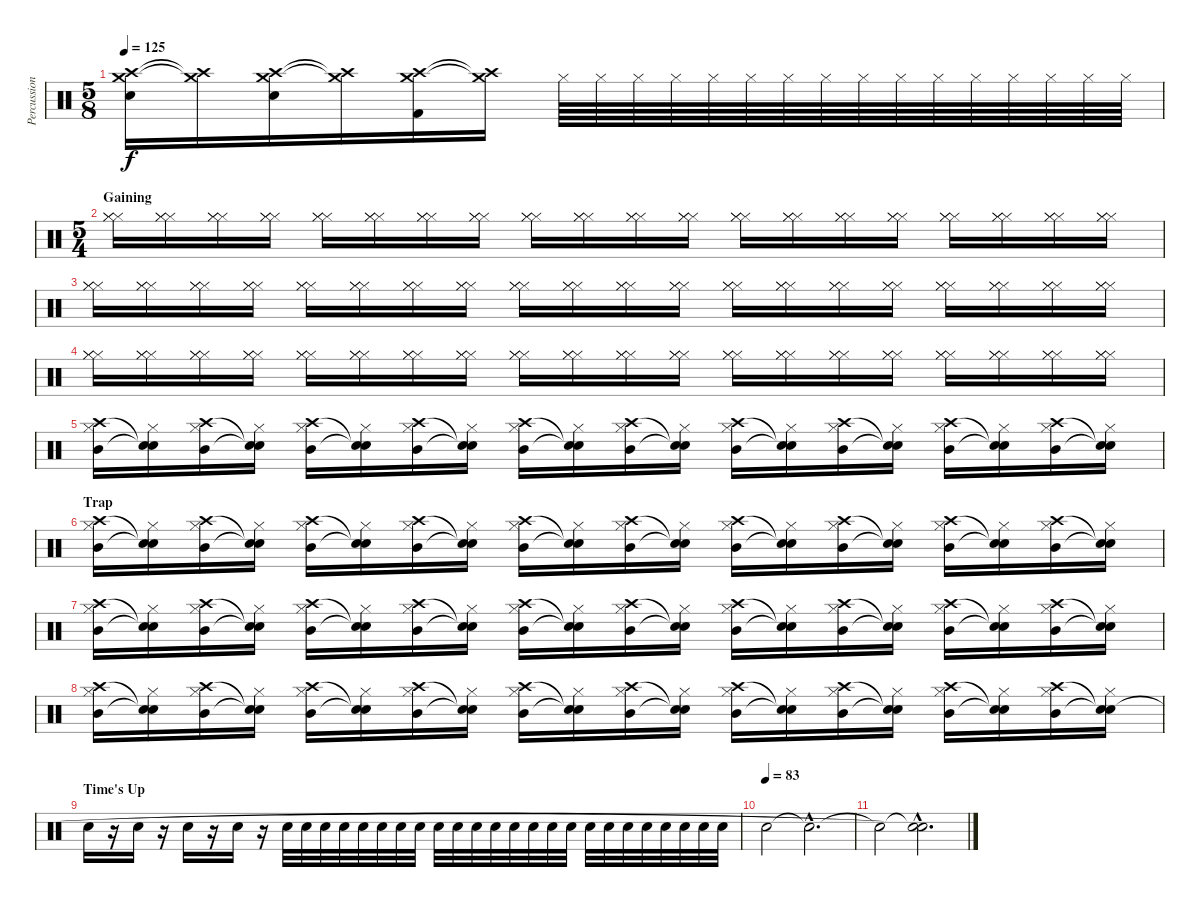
\track ("Percussion" "Percussion") {instrument percussion}
\staff {score}
\articulation defaults
\ts (5 8)
\tempo 125
\clef neutral
\ks c
("Crash high (hit)" "Crash medium (hit)" "Snare (hit) 2").16{dy f} ("Crash high (hit)"{t} "Crash medium (hit)"{t}).16 ("Crash high (hit)" "Crash medium (hit)" "Snare (hit) 2").16 ("Crash high (hit)"{t} "Crash medium (hit)"{t}).16 ("Crash high (hit)" "Crash medium (hit)" "Kick (hit) 2").16 ("Crash high (hit)"{t} "Crash medium (hit)"{t}).16 "Hi-Hat (closed)".64 "Hi-Hat (closed)".64 "Hi-Hat (closed)".64 "Hi-Hat (closed)".64 "Hi-Hat (closed)".64 "Hi-Hat (closed)".64 "Hi-Hat (closed)".64 "Hi-Hat (closed)".64 "Hi-Hat (closed)".64 "Hi-Hat (closed)".64 "Hi-Hat (closed)".64 "Hi-Hat (closed)".64 "Hi-Hat (closed)".64 "Hi-Hat (closed)".64 "Hi-Hat (closed)".64 "Hi-Hat (closed)".64 |
\ts (5 4)
\section ("" "Gaining")
("Hi-Hat (closed)" "Hi-Hat (closed)" "Hi-Hat (closed)").16 ("Hi-Hat (closed)" "Hi-Hat (closed)" "Hi-Hat (closed)").16 ("Hi-Hat (closed)" "Hi-Hat (closed)" "Hi-Hat (closed)").16 ("Hi-Hat (closed)" "Hi-Hat (closed)" "Hi-Hat (closed)").16 ("Hi-Hat (closed)" "Hi-Hat (closed)" "Hi-Hat (closed)").16 ("Hi-Hat (closed)" "Hi-Hat (closed)" "Hi-Hat (closed)").16 ("Hi-Hat (closed)" "Hi-Hat (closed)" "Hi-Hat (closed)").16 ("Hi-Hat (closed)" "Hi-Hat (closed)" "Hi-Hat (closed)").16 ("Hi-Hat (closed)" "Hi-Hat (closed)" "Hi-Hat (closed)").16 ("Hi-Hat (closed)" "Hi-Hat (closed)" "Hi-Hat (closed)").16 ("Hi-Hat (closed)" "Hi-Hat (closed)" "Hi-Hat (closed)").16 ("Hi-Hat (closed)" "Hi-Hat (closed)" "Hi-Hat (closed)").16 ("Hi-Hat (closed)" "Hi-Hat (closed)" "Hi-Hat (closed)").16 ("Hi-Hat (closed)" "Hi-Hat (closed)" "Hi-Hat (closed)").16 ("Hi-Hat (closed)" "Hi-Hat (closed)" "Hi-Hat (closed)").16 ("Hi-Hat (closed)" "Hi-Hat (closed)" "Hi-Hat (closed)").16 ("Hi-Hat (closed)" "Hi-Hat (closed)" "Hi-Hat (closed)").16 ("Hi-Hat (closed)" "Hi-Hat (closed)" "Hi-Hat (closed)").16 ("Hi-Hat (closed)" "Hi-Hat (closed)" "Hi-Hat (closed)").16 ("Hi-Hat (closed)" "Hi-Hat (closed)" "Hi-Hat (closed)").16 |
("Hi-Hat (closed)" "Hi-Hat (closed)" "Hi-Hat (closed)").16 ("Hi-Hat (closed)" "Hi-Hat (closed)" "Hi-Hat (closed)").16 ("Hi-Hat (closed)" "Hi-Hat (closed)" "Hi-Hat (closed)").16 ("Hi-Hat (closed)" "Hi-Hat (closed)" "Hi-Hat (closed)").16 ("Hi-Hat (closed)" "Hi-Hat (closed)" "Hi-Hat (closed)").16 ("Hi-Hat (closed)" "Hi-Hat (closed)" "Hi-Hat (closed)").16 ("Hi-Hat (closed)" "Hi-Hat (closed)" "Hi-Hat (closed)").16 ("Hi-Hat (closed)" "Hi-Hat (closed)" "Hi-Hat (closed)").16 ("Hi-Hat (closed)" "Hi-Hat (closed)" "Hi-Hat (closed)").16 ("Hi-Hat (closed)" "Hi-Hat (closed)" "Hi-Hat (closed)").16 ("Hi-Hat (closed)" "Hi-Hat (closed)" "Hi-Hat (closed)").16 ("Hi-Hat (closed)" "Hi-Hat (closed)" "Hi-Hat (closed)").16 ("Hi-Hat (closed)" "Hi-Hat (closed)" "Hi-Hat (closed)").16 ("Hi-Hat (closed)" "Hi-Hat (closed)" "Hi-Hat (closed)").16 ("Hi-Hat (closed)" "Hi-Hat (closed)" "Hi-Hat (closed)").16 ("Hi-Hat (closed)" "Hi-Hat (closed)" "Hi-Hat (closed)").16 ("Hi-Hat (closed)" "Hi-Hat (closed)" "Hi-Hat (closed)").16 ("Hi-Hat (closed)" "Hi-Hat (closed)" "Hi-Hat (closed)").16 ("Hi-Hat (closed)" "Hi-Hat (closed)" "Hi-Hat (closed)").16 ("Hi-Hat (closed)" "Hi-Hat (closed)" "Hi-Hat (closed)").16 |
("Hi-Hat (closed)" "Hi-Hat (closed)" "Hi-Hat (closed)").16 ("Hi-Hat (closed)" "Hi-Hat (closed)" "Hi-Hat (closed)").16 ("Hi-Hat (closed)" "Hi-Hat (closed)" "Hi-Hat (closed)").16 ("Hi-Hat (closed)" "Hi-Hat (closed)" "Hi-Hat (closed)").16 ("Hi-Hat (closed)" "Hi-Hat (closed)" "Hi-Hat (closed)").16 ("Hi-Hat (closed)" "Hi-Hat (closed)" "Hi-Hat (closed)").16 ("Hi-Hat (closed)" "Hi-Hat (closed)" "Hi-Hat (closed)").16 ("Hi-Hat (closed)" "Hi-Hat (closed)" "Hi-Hat (closed)").16 ("Hi-Hat (closed)" "Hi-Hat (closed)" "Hi-Hat (closed)").16 ("Hi-Hat (closed)" "Hi-Hat (closed)" "Hi-Hat (closed)").16 ("Hi-Hat (closed)" "Hi-Hat (closed)" "Hi-Hat (closed)").16 ("Hi-Hat (closed)" "Hi-Hat (closed)" "Hi-Hat (closed)").16 ("Hi-Hat (closed)" "Hi-Hat (closed)" "Hi-Hat (closed)").16 ("Hi-Hat (closed)" "Hi-Hat (closed)" "Hi-Hat (closed)").16 ("Hi-Hat (closed)" "Hi-Hat (closed)" "Hi-Hat (closed)").16 ("Hi-Hat (closed)" "Hi-Hat (closed)" "Hi-Hat (closed)").16 ("Hi-Hat (closed)" "Hi-Hat (closed)" "Hi-Hat (closed)").16 ("Hi-Hat (closed)" "Hi-Hat (closed)" "Hi-Hat (closed)").16 ("Hi-Hat (closed)" "Hi-Hat (closed)" "Hi-Hat (closed)").16 ("Hi-Hat (closed)" "Hi-Hat (closed)" "Hi-Hat (closed)").16 |
("Hi-Hat (closed)" "Crash high (hit)" "Mid Tom (hit)").16 ("Hi-Hat (closed)" "Snare (hit)"{t} "Snare (hit)"{t}).16 ("Hi-Hat (closed)" "Crash high (hit)" "Mid Tom (hit)").16 ("Hi-Hat (closed)" "Snare (hit)"{t} "Snare (hit)"{t}).16 ("Hi-Hat (closed)" "Crash high (hit)" "Mid Tom (hit)").16 ("Hi-Hat (closed)" "Snare (hit)"{t} "Snare (hit)"{t}).16 ("Hi-Hat (closed)" "Crash high (hit)" "Mid Tom (hit)").16 ("Hi-Hat (closed)" "Snare (hit)"{t} "Snare (hit)"{t}).16 ("Hi-Hat (closed)" "Crash high (hit)" "Mid Tom (hit)").16 ("Hi-Hat (closed)" "Snare (hit)"{t} "Snare (hit)"{t}).16 ("Hi-Hat (closed)" "Crash high (hit)" "Mid Tom (hit)").16 ("Hi-Hat (closed)" "Snare (hit)"{t} "Snare (hit)"{t}).16 ("Hi-Hat (closed)" "Crash high (hit)" "Mid Tom (hit)").16 ("Hi-Hat (closed)" "Snare (hit)"{t} "Snare (hit)"{t}).16 ("Hi-Hat (closed)" "Crash high (hit)" "Mid Tom (hit)").16 ("Hi-Hat (closed)" "Snare (hit)"{t} "Snare (hit)"{t}).16 ("Hi-Hat (closed)" "Crash high (hit)" "Mid Tom (hit)").16 ("Hi-Hat (closed)" "Snare (hit)"{t} "Snare (hit)"{t}).16 ("Hi-Hat (closed)" "Crash high (hit)" "Mid Tom (hit)").16 ("Hi-Hat (closed)" "Snare (hit)"{t} "Snare (hit)"{t}).16 |
\section ("" "Trap")
("Hi-Hat (closed)" "Crash high (hit)" "Mid Tom (hit)").16 ("Hi-Hat (closed)" "Snare (hit)"{t} "Snare (hit)"{t}).16 ("Hi-Hat (closed)" "Crash high (hit)" "Mid Tom (hit)").16 ("Hi-Hat (closed)" "Snare (hit)"{t} "Snare (hit)"{t}).16 ("Hi-Hat (closed)" "Crash high (hit)" "Mid Tom (hit)").16 ("Hi-Hat (closed)" "Snare (hit)"{t} "Snare (hit)"{t}).16 ("Hi-Hat (closed)" "Crash high (hit)" "Mid Tom (hit)").16 ("Hi-Hat (closed)" "Snare (hit)"{t} "Snare (hit)"{t}).16 ("Hi-Hat (closed)" "Crash high (hit)" "Mid Tom (hit)").16 ("Hi-Hat (closed)" "Snare (hit)"{t} "Snare (hit)"{t}).16 ("Hi-Hat (closed)" "Crash high (hit)" "Mid Tom (hit)").16 ("Hi-Hat (closed)" "Snare (hit)"{t} "Snare (hit)"{t}).16 ("Hi-Hat (closed)" "Crash high (hit)" "Mid Tom (hit)").16 ("Hi-Hat (closed)" "Snare (hit)"{t} "Snare (hit)"{t}).16 ("Hi-Hat (closed)" "Crash high (hit)" "Mid Tom (hit)").16 ("Hi-Hat (closed)" "Snare (hit)"{t} "Snare (hit)"{t}).16 ("Hi-Hat (closed)" "Crash high (hit)" "Mid Tom (hit)").16 ("Hi-Hat (closed)" "Snare (hit)"{t} "Snare (hit)"{t}).16 ("Hi-Hat (closed)" "Crash high (hit)" "Mid Tom (hit)").16 ("Hi-Hat (closed)" "Snare (hit)"{t} "Snare (hit)"{t}).16 |
("Hi-Hat (closed)" "Crash high (hit)" "Mid Tom (hit)").16 ("Hi-Hat (closed)" "Snare (hit)"{t} "Snare (hit)"{t}).16 ("Hi-Hat (closed)" "Crash high (hit)" "Mid Tom (hit)").16 ("Hi-Hat (closed)" "Snare (hit)"{t} "Snare (hit)"{t}).16 ("Hi-Hat (closed)" "Crash high (hit)" "Mid Tom (hit)").16 ("Hi-Hat (closed)" "Snare (hit)"{t} "Snare (hit)"{t}).16 ("Hi-Hat (closed)" "Crash high (hit)" "Mid Tom (hit)").16 ("Hi-Hat (closed)" "Snare (hit)"{t} "Snare (hit)"{t}).16 ("Hi-Hat (closed)" "Crash high (hit)" "Mid Tom (hit)").16 ("Hi-Hat (closed)" "Snare (hit)"{t} "Snare (hit)"{t}).16 ("Hi-Hat (closed)" "Crash high (hit)" "Mid Tom (hit)").16 ("Hi-Hat (closed)" "Snare (hit)"{t} "Snare (hit)"{t}).16 ("Hi-Hat (closed)" "Crash high (hit)" "Mid Tom (hit)").16 ("Hi-Hat (closed)" "Snare (hit)"{t} "Snare (hit)"{t}).16 ("Hi-Hat (closed)" "Crash high (hit)" "Mid Tom (hit)").16 ("Hi-Hat (closed)" "Snare (hit)"{t} "Snare (hit)"{t}).16 ("Hi-Hat (closed)" "Crash high (hit)" "Mid Tom (hit)").16 ("Hi-Hat (closed)" "Snare (hit)"{t} "Snare (hit)"{t}).16 ("Hi-Hat (closed)" "Crash high (hit)" "Mid Tom (hit)").16 ("Hi-Hat (closed)" "Snare (hit)"{t} "Snare (hit)"{t}).16 |
("Hi-Hat (closed)" "Crash high (hit)" "Mid Tom (hit)").16 ("Hi-Hat (closed)" "Snare (hit)"{t} "Snare (hit)"{t}).16 ("Hi-Hat (closed)" "Crash high (hit)" "Mid Tom (hit)").16 ("Hi-Hat (closed)" "Snare (hit)"{t} "Snare (hit)"{t}).16 ("Hi-Hat (closed)" "Crash high (hit)" "Mid Tom (hit)").16 ("Hi-Hat (closed)" "Snare (hit)"{t} "Snare (hit)"{t}).16 ("Hi-Hat (closed)" "Crash high (hit)" "Mid Tom (hit)").16 ("Hi-Hat (closed)" "Snare (hit)"{t} "Snare (hit)"{t}).16 ("Hi-Hat (closed)" "Crash high (hit)" "Mid Tom (hit)").16 ("Hi-Hat (closed)" "Snare (hit)"{t} "Snare (hit)"{t}).16 ("Hi-Hat (closed)" "Crash high (hit)" "Mid Tom (hit)").16 ("Hi-Hat (closed)" "Snare (hit)"{t} "Snare (hit)"{t}).16 ("Hi-Hat (closed)" "Crash high (hit)" "Mid Tom (hit)").16 ("Hi-Hat (closed)" "Snare (hit)"{t} "Snare (hit)"{t}).16 ("Hi-Hat (closed)" "Crash high (hit)" "Mid Tom (hit)").16 ("Hi-Hat (closed)" "Snare (hit)"{t} "Snare (hit)"{t}).16 ("Hi-Hat (closed)" "Crash high (hit)" "Mid Tom (hit)").16 ("Hi-Hat (closed)" "Snare (hit)"{t} "Snare (hit)"{t}).16 ("Hi-Hat (closed)" "Crash high (hit)" "Mid Tom (hit)").16 ("Hi-Hat (closed)" "Snare (hit)"{t} "Snare (hit)"{t}).16 |
\section ("" "Time's Up")
"Snare (hit) 2".16 r.16 "Snare (hit) 2".16 r.16 "Snare (hit) 2".16 r.16 "Snare (hit) 2".16 r.16 "Snare (hit) 2".32 "Snare (hit) 2".32 "Snare (hit) 2".32 "Snare (hit) 2".32 "Snare (hit) 2".32 "Snare (hit) 2".32 "Snare (hit) 2".32 "Snare (hit) 2".32 "Snare (hit) 2".32 "Snare (hit) 2".32 "Snare (hit) 2".32 "Snare (hit) 2".32 "Snare (hit) 2".32 "Snare (hit) 2".32 "Snare (hit) 2".32 "Snare (hit) 2".32 "Snare (hit) 2".32 "Snare (hit) 2".32 "Snare (hit) 2".32 "Snare (hit) 2".32 "Snare (hit) 2".32 "Snare (hit) 2".32 "Snare (hit) 2".32 "Snare (hit) 2".32 |
\tempo (83)
"Snare (hit) 2".2 "Snare (hit)"{hac t}.2{d} |
"Snare (hit)"{t}.2 ("Snare (hit)"{hac t} "Snare (hit)"{hac t}).2{d}
